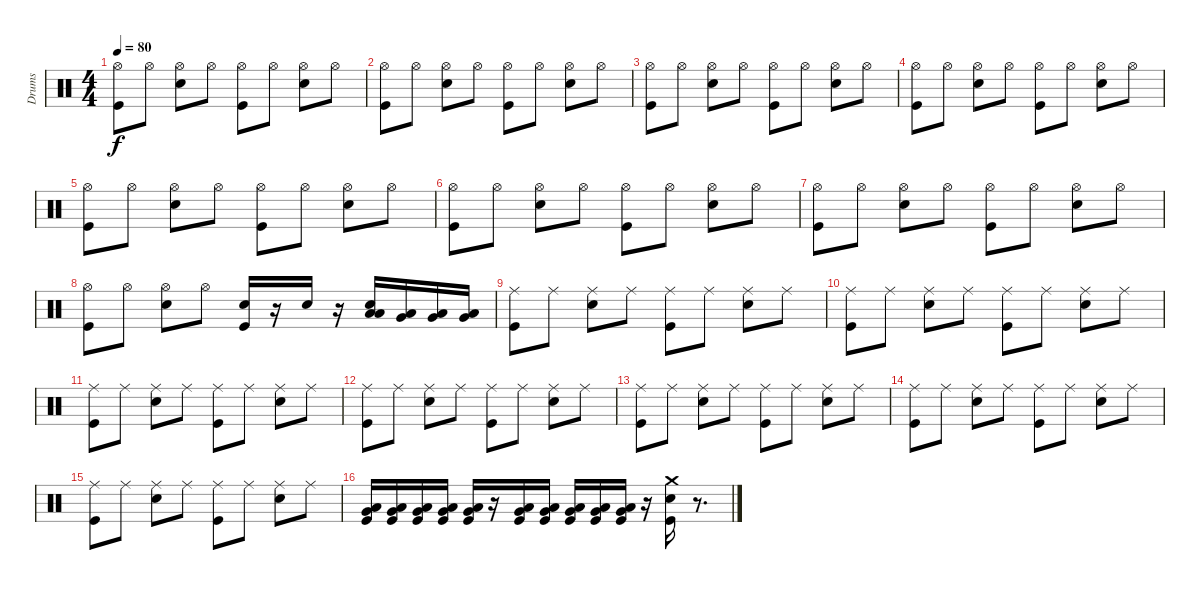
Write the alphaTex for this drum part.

\track ("Drums" "Drums") {instrument percussion}
\staff {score}
\articulation defaults
\ts (4 4)
\tempo 80
\clef neutral
\ks c
("Hi-Hat (open)" "Kick (hit)").8{dy f} "Hi-Hat (open)".8 ("Snare (hit) 2" "Hi-Hat (open)").8 "Hi-Hat (open)".8 ("Hi-Hat (open)" "Kick (hit)").8 "Hi-Hat (open)".8 ("Snare (hit) 2" "Hi-Hat (open)").8 "Hi-Hat (open)".8 |
("Hi-Hat (open)" "Kick (hit)").8 "Hi-Hat (open)".8 ("Snare (hit) 2" "Hi-Hat (open)").8 "Hi-Hat (open)".8 ("Hi-Hat (open)" "Kick (hit)").8 "Hi-Hat (open)".8 ("Snare (hit) 2" "Hi-Hat (open)").8 "Hi-Hat (open)".8 |
("Hi-Hat (open)" "Kick (hit)").8 "Hi-Hat (open)".8 ("Snare (hit) 2" "Hi-Hat (open)").8 "Hi-Hat (open)".8 ("Hi-Hat (open)" "Kick (hit)").8 "Hi-Hat (open)".8 ("Snare (hit) 2" "Hi-Hat (open)").8 "Hi-Hat (open)".8 |
("Hi-Hat (open)" "Kick (hit)").8 "Hi-Hat (open)".8 ("Snare (hit) 2" "Hi-Hat (open)").8 "Hi-Hat (open)".8 ("Hi-Hat (open)" "Kick (hit)").8 "Hi-Hat (open)".8 ("Snare (hit) 2" "Hi-Hat (open)").8 "Hi-Hat (open)".8 |
("Hi-Hat (open)" "Kick (hit)").8 "Hi-Hat (open)".8 ("Snare (hit) 2" "Hi-Hat (open)").8 "Hi-Hat (open)".8 ("Hi-Hat (open)" "Kick (hit)").8 "Hi-Hat (open)".8 ("Snare (hit) 2" "Hi-Hat (open)").8 "Hi-Hat (open)".8 |
("Hi-Hat (open)" "Kick (hit)").8 "Hi-Hat (open)".8 ("Snare (hit) 2" "Hi-Hat (open)").8 "Hi-Hat (open)".8 ("Hi-Hat (open)" "Kick (hit)").8 "Hi-Hat (open)".8 ("Snare (hit) 2" "Hi-Hat (open)").8 "Hi-Hat (open)".8 |
("Hi-Hat (open)" "Kick (hit)").8 "Hi-Hat (open)".8 ("Snare (hit) 2" "Hi-Hat (open)").8 "Hi-Hat (open)".8 ("Hi-Hat (open)" "Kick (hit)").8 "Hi-Hat (open)".8 ("Snare (hit) 2" "Hi-Hat (open)").8 "Hi-Hat (open)".8 |
("Hi-Hat (open)" "Kick (hit)").8 "Hi-Hat (open)".8 ("Hi-Hat (open)" "Snare (hit) 2").8 "Hi-Hat (open)".8 ("Snare (hit) 2" "Kick (hit)").16 r.16 "Snare (hit) 2".16 r.16 ("Snare (hit) 2" "Low Tom (hit)" "Low Floor Tom (hit)").16 ("Low Tom (hit)" "Very Low Tom (hit)").16 ("Very Low Tom (hit)" "Low Tom (hit)").16 ("Very Low Tom (hit)" "Low Floor Tom (hit)").16 |
("Ride (middle)" "Kick (hit)").8 "Ride (middle)".8 ("Ride (middle)" "Snare (hit) 2").8 "Ride (middle)".8 ("Ride (middle)" "Kick (hit)").8 "Ride (middle)".8 ("Ride (middle)" "Snare (hit) 2").8 "Ride (middle)".8 |
("Ride (middle)" "Kick (hit)").8 "Ride (middle)".8 ("Ride (middle)" "Snare (hit) 2").8 "Ride (middle)".8 ("Ride (middle)" "Kick (hit)").8 "Ride (middle)".8 ("Ride (middle)" "Snare (hit) 2").8 "Ride (middle)".8 |
("Ride (middle)" "Kick (hit)").8 "Ride (middle)".8 ("Ride (middle)" "Snare (hit) 2").8 "Ride (middle)".8 ("Ride (middle)" "Kick (hit)").8 "Ride (middle)".8 ("Ride (middle)" "Snare (hit) 2").8 "Ride (middle)".8 |
("Ride (middle)" "Kick (hit)").8 "Ride (middle)".8 ("Ride (middle)" "Snare (hit) 2").8 "Ride (middle)".8 ("Ride (middle)" "Kick (hit)").8 "Ride (middle)".8 ("Ride (middle)" "Snare (hit) 2").8 "Ride (middle)".8 |
("Ride (middle)" "Kick (hit)").8 "Ride (middle)".8 ("Ride (middle)" "Snare (hit) 2").8 "Ride (middle)".8 ("Ride (middle)" "Kick (hit)").8 "Ride (middle)".8 ("Ride (middle)" "Snare (hit) 2").8 "Ride (middle)".8 |
("Ride (middle)" "Kick (hit)").8 "Ride (middle)".8 ("Ride (middle)" "Snare (hit) 2").8 "Ride (middle)".8 ("Ride (middle)" "Kick (hit)").8 "Ride (middle)".8 ("Ride (middle)" "Snare (hit) 2").8 "Ride (middle)".8 |
("Ride (middle)" "Kick (hit)").8 "Ride (middle)".8 ("Ride (middle)" "Snare (hit) 2").8 "Ride (middle)".8 ("Ride (middle)" "Kick (hit)").8 "Ride (middle)".8 ("Ride (middle)" "Snare (hit) 2").8 "Ride (middle)".8 |
("Very Low Tom (hit)" "Low Floor Tom (hit)" "Kick (hit)").16 ("Very Low Tom (hit)" "Low Floor Tom (hit)" "Kick (hit)").16 ("Very Low Tom (hit)" "Low Floor Tom (hit)" "Kick (hit)").16 ("Very Low Tom (hit)" "Low Floor Tom (hit)" "Kick (hit)").16 ("Very Low Tom (hit)" "Low Floor Tom (hit)" "Kick (hit)").16 r.16 ("Very Low Tom (hit)" "Low Floor Tom (hit)" "Kick (hit)").16 ("Very Low Tom (hit)" "Low Floor Tom (hit)" "Kick (hit)").16 ("Very Low Tom (hit)" "Low Floor Tom (hit)" "Kick (hit)").16 ("Very Low Tom (hit)" "Low Floor Tom (hit)" "Kick (hit)").16 ("Very Low Tom (hit)" "Low Floor Tom (hit)" "Kick (hit)").16 r.16 ("Snare (hit) 2" "Crash medium (hit)" "Kick (hit)").16 r.8{d}
